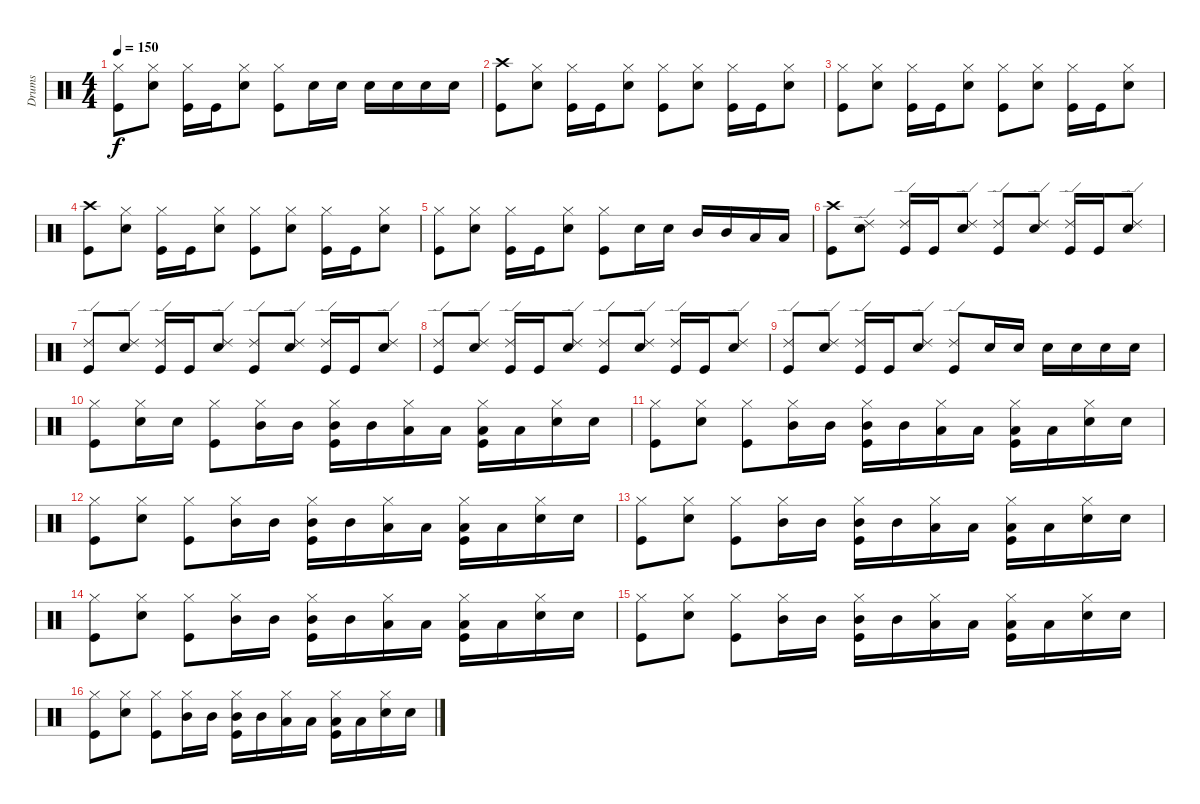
\track ("Drums" "Drums") {instrument percussion}
\staff {score}
\articulation defaults
\ts (4 4)
\tempo 150
\clef neutral
\ks c
("Hi-Hat (closed)" "Kick (hit)").8{dy f} ("Hi-Hat (closed)" "Electric Snare (hit)").8 ("Hi-Hat (closed)" "Kick (hit)").16 "Kick (hit)".16 ("Hi-Hat (closed)" "Electric Snare (hit)").8 ("Hi-Hat (closed)" "Kick (hit)").8 "Electric Snare (hit)".16 "Electric Snare (hit)".16 "Electric Snare (hit)".16 "Electric Snare (hit)".16 "Electric Snare (hit)".16 "Electric Snare (hit)".16 |
("Crash high (hit)" "Kick (hit)").8 ("Hi-Hat (closed)" "Electric Snare (hit)").8 ("Hi-Hat (closed)" "Kick (hit)").16 "Kick (hit)".16 ("Hi-Hat (closed)" "Electric Snare (hit)").8 ("Hi-Hat (closed)" "Kick (hit)").8 ("Hi-Hat (closed)" "Electric Snare (hit)").8 ("Hi-Hat (closed)" "Kick (hit)").16 "Kick (hit)".16 ("Hi-Hat (closed)" "Electric Snare (hit)").8 |
("Hi-Hat (closed)" "Kick (hit)").8 ("Hi-Hat (closed)" "Electric Snare (hit)").8 ("Hi-Hat (closed)" "Kick (hit)").16 "Kick (hit)".16 ("Hi-Hat (closed)" "Electric Snare (hit)").8 ("Hi-Hat (closed)" "Kick (hit)").8 ("Hi-Hat (closed)" "Electric Snare (hit)").8 ("Hi-Hat (closed)" "Kick (hit)").16 "Kick (hit)".16 ("Hi-Hat (closed)" "Electric Snare (hit)").8 |
("Crash high (hit)" "Kick (hit)").8 ("Hi-Hat (closed)" "Electric Snare (hit)").8 ("Hi-Hat (closed)" "Kick (hit)").16 "Kick (hit)".16 ("Hi-Hat (closed)" "Electric Snare (hit)").8 ("Hi-Hat (closed)" "Kick (hit)").8 ("Hi-Hat (closed)" "Electric Snare (hit)").8 ("Hi-Hat (closed)" "Kick (hit)").16 "Kick (hit)".16 ("Hi-Hat (closed)" "Electric Snare (hit)").8 |
("Hi-Hat (closed)" "Kick (hit)").8 ("Hi-Hat (closed)" "Electric Snare (hit)").8 ("Hi-Hat (closed)" "Kick (hit)").16 "Kick (hit)".16 ("Hi-Hat (closed)" "Electric Snare (hit)").8 ("Hi-Hat (closed)" "Kick (hit)").8 "Electric Snare (hit)".16 "Electric Snare (hit)".16 "Mid Tom (hit)".16 "Mid Tom (hit)".16 "Low Tom (hit)".16 "Low Tom (hit)".16 |
("Crash high (hit)" "Kick (hit)").8 ("Ride (edge) 2" "Electric Snare (hit)").8 ("Ride (edge) 2" "Kick (hit)").16 "Kick (hit)".16 ("Ride (edge) 2" "Electric Snare (hit)").8 ("Ride (edge) 2" "Kick (hit)").8 ("Ride (edge) 2" "Electric Snare (hit)").8 ("Ride (edge) 2" "Kick (hit)").16 "Kick (hit)".16 ("Ride (edge) 2" "Electric Snare (hit)").8 |
("Ride (edge) 2" "Kick (hit)").8 ("Ride (edge) 2" "Electric Snare (hit)").8 ("Ride (edge) 2" "Kick (hit)").16 "Kick (hit)".16 ("Ride (edge) 2" "Electric Snare (hit)").8 ("Ride (edge) 2" "Kick (hit)").8 ("Ride (edge) 2" "Electric Snare (hit)").8 ("Ride (edge) 2" "Kick (hit)").16 "Kick (hit)".16 ("Ride (edge) 2" "Electric Snare (hit)").8 |
("Ride (edge) 2" "Kick (hit)").8 ("Ride (edge) 2" "Electric Snare (hit)").8 ("Ride (edge) 2" "Kick (hit)").16 "Kick (hit)".16 ("Ride (edge) 2" "Electric Snare (hit)").8 ("Ride (edge) 2" "Kick (hit)").8 ("Ride (edge) 2" "Electric Snare (hit)").8 ("Ride (edge) 2" "Kick (hit)").16 "Kick (hit)".16 ("Ride (edge) 2" "Electric Snare (hit)").8 |
("Ride (edge) 2" "Kick (hit)").8 ("Ride (edge) 2" "Electric Snare (hit)").8 ("Ride (edge) 2" "Kick (hit)").16 "Kick (hit)".16 ("Ride (edge) 2" "Electric Snare (hit)").8 ("Ride (edge) 2" "Kick (hit)").8 "Electric Snare (hit)".16 "Electric Snare (hit)".16 "Electric Snare (hit)".16 "Electric Snare (hit)".16 "Electric Snare (hit)".16 "Electric Snare (hit)".16 |
("Hi-Hat (closed)" "Kick (hit)").8 ("Hi-Hat (closed)" "Electric Snare (hit)").16 "Electric Snare (hit)".16 ("Hi-Hat (closed)" "Kick (hit)").8 ("Hi-Hat (closed)" "Mid Tom (hit)").16 "Mid Tom (hit)".16 ("Hi-Hat (closed)" "Mid Tom (hit)" "Kick (hit)").16 "Mid Tom (hit)".16 ("Hi-Hat (closed)" "Low Tom (hit)").16 "Low Tom (hit)".16 ("Hi-Hat (closed)" "Low Tom (hit)" "Kick (hit)").16 "Low Tom (hit)".16 ("Hi-Hat (closed)" "Electric Snare (hit)").16 "Electric Snare (hit)".16 |
("Hi-Hat (closed)" "Kick (hit)").8 ("Hi-Hat (closed)" "Electric Snare (hit)").8 ("Hi-Hat (closed)" "Kick (hit)").8 ("Hi-Hat (closed)" "Mid Tom (hit)").16 "Mid Tom (hit)".16 ("Hi-Hat (closed)" "Mid Tom (hit)" "Kick (hit)").16 "Mid Tom (hit)".16 ("Hi-Hat (closed)" "Low Tom (hit)").16 "Low Tom (hit)".16 ("Hi-Hat (closed)" "Low Tom (hit)" "Kick (hit)").16 "Low Tom (hit)".16 ("Hi-Hat (closed)" "Electric Snare (hit)").16 "Electric Snare (hit)".16 |
("Hi-Hat (closed)" "Kick (hit)").8 ("Hi-Hat (closed)" "Electric Snare (hit)").8 ("Hi-Hat (closed)" "Kick (hit)").8 ("Hi-Hat (closed)" "Mid Tom (hit)").16 "Mid Tom (hit)".16 ("Hi-Hat (closed)" "Mid Tom (hit)" "Kick (hit)").16 "Mid Tom (hit)".16 ("Hi-Hat (closed)" "Low Tom (hit)").16 "Low Tom (hit)".16 ("Hi-Hat (closed)" "Low Tom (hit)" "Kick (hit)").16 "Low Tom (hit)".16 ("Hi-Hat (closed)" "Electric Snare (hit)").16 "Electric Snare (hit)".16 |
("Hi-Hat (closed)" "Kick (hit)").8 ("Hi-Hat (closed)" "Electric Snare (hit)").8 ("Hi-Hat (closed)" "Kick (hit)").8 ("Hi-Hat (closed)" "Mid Tom (hit)").16 "Mid Tom (hit)".16 ("Hi-Hat (closed)" "Mid Tom (hit)" "Kick (hit)").16 "Mid Tom (hit)".16 ("Hi-Hat (closed)" "Low Tom (hit)").16 "Low Tom (hit)".16 ("Hi-Hat (closed)" "Low Tom (hit)" "Kick (hit)").16 "Low Tom (hit)".16 ("Hi-Hat (closed)" "Electric Snare (hit)").16 "Electric Snare (hit)".16 |
("Hi-Hat (closed)" "Kick (hit)").8 ("Hi-Hat (closed)" "Electric Snare (hit)").8 ("Hi-Hat (closed)" "Kick (hit)").8 ("Hi-Hat (closed)" "Mid Tom (hit)").16 "Mid Tom (hit)".16 ("Hi-Hat (closed)" "Mid Tom (hit)" "Kick (hit)").16 "Mid Tom (hit)".16 ("Hi-Hat (closed)" "Low Tom (hit)").16 "Low Tom (hit)".16 ("Hi-Hat (closed)" "Low Tom (hit)" "Kick (hit)").16 "Low Tom (hit)".16 ("Hi-Hat (closed)" "Electric Snare (hit)").16 "Electric Snare (hit)".16 |
("Hi-Hat (closed)" "Kick (hit)").8 ("Hi-Hat (closed)" "Electric Snare (hit)").8 ("Hi-Hat (closed)" "Kick (hit)").8 ("Hi-Hat (closed)" "Mid Tom (hit)").16 "Mid Tom (hit)".16 ("Hi-Hat (closed)" "Mid Tom (hit)" "Kick (hit)").16 "Mid Tom (hit)".16 ("Hi-Hat (closed)" "Low Tom (hit)").16 "Low Tom (hit)".16 ("Hi-Hat (closed)" "Low Tom (hit)" "Kick (hit)").16 "Low Tom (hit)".16 ("Hi-Hat (closed)" "Electric Snare (hit)").16 "Electric Snare (hit)".16 |
("Hi-Hat (closed)" "Kick (hit)").8 ("Hi-Hat (closed)" "Electric Snare (hit)").8 ("Hi-Hat (closed)" "Kick (hit)").8 ("Hi-Hat (closed)" "Mid Tom (hit)").16 "Mid Tom (hit)".16 ("Hi-Hat (closed)" "Mid Tom (hit)" "Kick (hit)").16 "Mid Tom (hit)".16 ("Hi-Hat (closed)" "Low Tom (hit)").16 "Low Tom (hit)".16 ("Hi-Hat (closed)" "Low Tom (hit)" "Kick (hit)").16 "Low Tom (hit)".16 ("Hi-Hat (closed)" "Electric Snare (hit)").16 "Electric Snare (hit)".16
